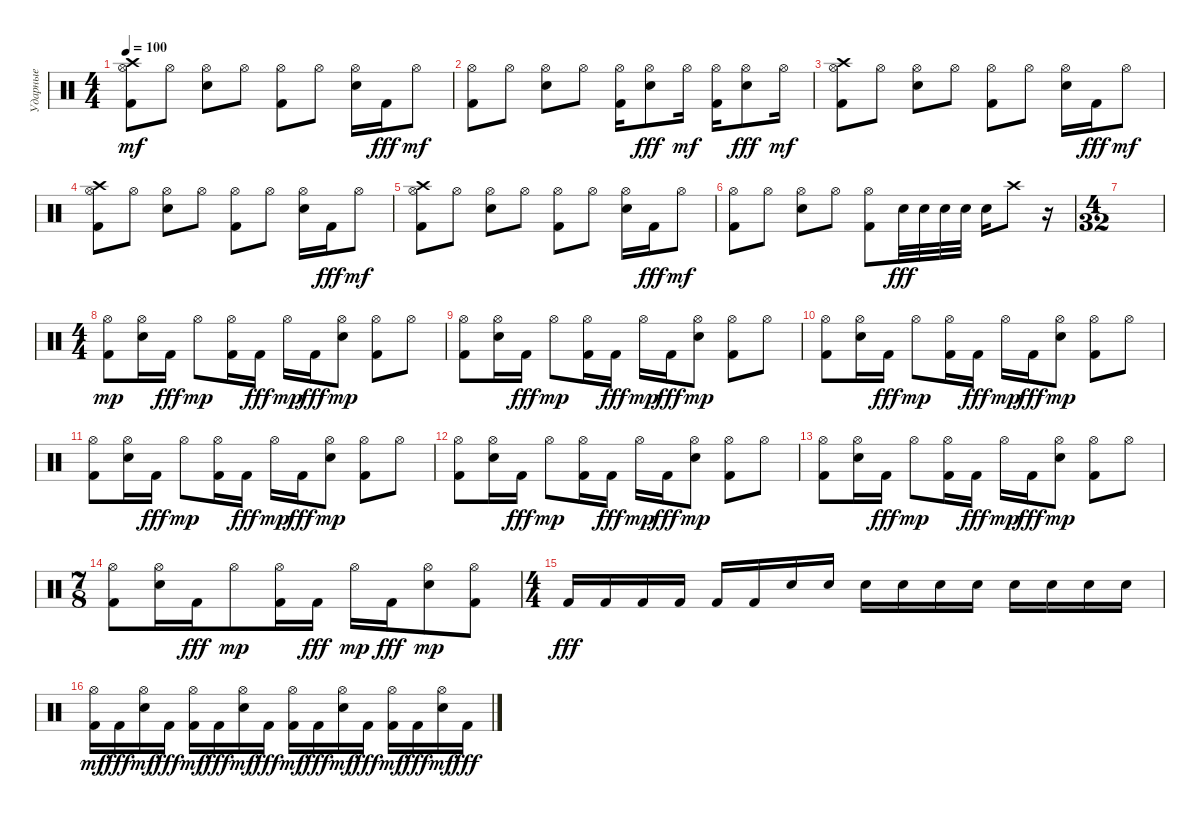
\track ("Ударные" "Ударные") {instrument percussion}
\staff {score}
\articulation defaults
\ts (4 4)
\tempo 100
\clef neutral
\ks c
("Kick (hit) 2" "Hi-Hat (open)" "Crash high (hit)").8{dy mf} "Hi-Hat (open)".8 ("Electric Snare (hit)" "Hi-Hat (open)").8 "Hi-Hat (open)".8 ("Kick (hit) 2" "Hi-Hat (open)").8 "Hi-Hat (open)".8 ("Electric Snare (hit)" "Hi-Hat (open)").16 "Kick (hit) 2".16{dy fff} "Hi-Hat (open)".8{dy mf} |
("Kick (hit) 2" "Hi-Hat (open)").8 "Hi-Hat (open)".8 ("Electric Snare (hit)" "Hi-Hat (open)").8 "Hi-Hat (open)".8 ("Kick (hit) 2" "Hi-Hat (open)").16 ("Hi-Hat (open)" "Electric Snare (hit)").8{dy fff} "Hi-Hat (open)".16{dy mf} ("Kick (hit) 2" "Hi-Hat (open)").16 ("Hi-Hat (open)" "Electric Snare (hit)").8{dy fff} "Hi-Hat (open)".16{dy mf} |
("Kick (hit) 2" "Hi-Hat (open)" "Crash high (hit)").8 "Hi-Hat (open)".8 ("Electric Snare (hit)" "Hi-Hat (open)").8 "Hi-Hat (open)".8 ("Kick (hit) 2" "Hi-Hat (open)").8 "Hi-Hat (open)".8 ("Electric Snare (hit)" "Hi-Hat (open)").16 "Kick (hit) 2".16{dy fff} "Hi-Hat (open)".8{dy mf} |
("Kick (hit) 2" "Hi-Hat (open)" "Crash high (hit)").8 "Hi-Hat (open)".8 ("Electric Snare (hit)" "Hi-Hat (open)").8 "Hi-Hat (open)".8 ("Kick (hit) 2" "Hi-Hat (open)").8 "Hi-Hat (open)".8 ("Electric Snare (hit)" "Hi-Hat (open)").16 "Kick (hit) 2".16{dy fff} "Hi-Hat (open)".8{dy mf} |
("Kick (hit) 2" "Hi-Hat (open)" "Crash high (hit)").8 "Hi-Hat (open)".8 ("Electric Snare (hit)" "Hi-Hat (open)").8 "Hi-Hat (open)".8 ("Kick (hit) 2" "Hi-Hat (open)").8 "Hi-Hat (open)".8 ("Electric Snare (hit)" "Hi-Hat (open)").16 "Kick (hit) 2".16{dy fff} "Hi-Hat (open)".8{dy mf} |
("Kick (hit) 2" "Hi-Hat (open)").8 "Hi-Hat (open)".8 ("Electric Snare (hit)" "Hi-Hat (open)").8 "Hi-Hat (open)".8 ("Kick (hit) 2" "Hi-Hat (open)").8 "Electric Snare (hit)".32{dy fff} "Electric Snare (hit)".32 "Electric Snare (hit)".32 "Electric Snare (hit)".32 "Electric Snare (hit)".16 "Crash high (hit)".8 r.16 |
\ts (4 32)
|
\ts (4 4)
("Kick (hit) 2" "Hi-Hat (open)").8{dy mp} ("Electric Snare (hit)" "Hi-Hat (open)").16 "Kick (hit) 2".16{dy fff} "Hi-Hat (open)".8{dy mp} ("Kick (hit) 2" "Hi-Hat (open)").16 "Kick (hit) 2".16{dy fff} "Hi-Hat (open)".16{dy mp} "Kick (hit) 2".16{dy fff} ("Electric Snare (hit)" "Hi-Hat (open)").8{dy mp} ("Kick (hit) 2" "Hi-Hat (open)").8 "Hi-Hat (open)".8 |
("Kick (hit) 2" "Hi-Hat (open)").8 ("Electric Snare (hit)" "Hi-Hat (open)").16 "Kick (hit) 2".16{dy fff} "Hi-Hat (open)".8{dy mp} ("Kick (hit) 2" "Hi-Hat (open)").16 "Kick (hit) 2".16{dy fff} "Hi-Hat (open)".16{dy mp} "Kick (hit) 2".16{dy fff} ("Electric Snare (hit)" "Hi-Hat (open)").8{dy mp} ("Kick (hit) 2" "Hi-Hat (open)").8 "Hi-Hat (open)".8 |
("Kick (hit) 2" "Hi-Hat (open)").8 ("Electric Snare (hit)" "Hi-Hat (open)").16 "Kick (hit) 2".16{dy fff} "Hi-Hat (open)".8{dy mp} ("Kick (hit) 2" "Hi-Hat (open)").16 "Kick (hit) 2".16{dy fff} "Hi-Hat (open)".16{dy mp} "Kick (hit) 2".16{dy fff} ("Electric Snare (hit)" "Hi-Hat (open)").8{dy mp} ("Kick (hit) 2" "Hi-Hat (open)").8 "Hi-Hat (open)".8 |
("Kick (hit) 2" "Hi-Hat (open)").8 ("Electric Snare (hit)" "Hi-Hat (open)").16 "Kick (hit) 2".16{dy fff} "Hi-Hat (open)".8{dy mp} ("Kick (hit) 2" "Hi-Hat (open)").16 "Kick (hit) 2".16{dy fff} "Hi-Hat (open)".16{dy mp} "Kick (hit) 2".16{dy fff} ("Electric Snare (hit)" "Hi-Hat (open)").8{dy mp} ("Kick (hit) 2" "Hi-Hat (open)").8 "Hi-Hat (open)".8 |
("Kick (hit) 2" "Hi-Hat (open)").8 ("Electric Snare (hit)" "Hi-Hat (open)").16 "Kick (hit) 2".16{dy fff} "Hi-Hat (open)".8{dy mp} ("Kick (hit) 2" "Hi-Hat (open)").16 "Kick (hit) 2".16{dy fff} "Hi-Hat (open)".16{dy mp} "Kick (hit) 2".16{dy fff} ("Electric Snare (hit)" "Hi-Hat (open)").8{dy mp} ("Kick (hit) 2" "Hi-Hat (open)").8 "Hi-Hat (open)".8 |
("Kick (hit) 2" "Hi-Hat (open)").8 ("Electric Snare (hit)" "Hi-Hat (open)").16 "Kick (hit) 2".16{dy fff} "Hi-Hat (open)".8{dy mp} ("Kick (hit) 2" "Hi-Hat (open)").16 "Kick (hit) 2".16{dy fff} "Hi-Hat (open)".16{dy mp} "Kick (hit) 2".16{dy fff} ("Electric Snare (hit)" "Hi-Hat (open)").8{dy mp} ("Kick (hit) 2" "Hi-Hat (open)").8 "Hi-Hat (open)".8 |
\ts (7 8)
("Kick (hit) 2" "Hi-Hat (open)").8 ("Electric Snare (hit)" "Hi-Hat (open)").16 "Kick (hit) 2".16{dy fff} "Hi-Hat (open)".8{dy mp} ("Kick (hit) 2" "Hi-Hat (open)").16 "Kick (hit) 2".16{dy fff} "Hi-Hat (open)".16{dy mp} "Kick (hit) 2".16{dy fff} ("Electric Snare (hit)" "Hi-Hat (open)").8{dy mp} ("Kick (hit) 2" "Hi-Hat (open)").8 |
\ts (4 4)
"Kick (hit) 2".16{dy fff} "Kick (hit) 2".16 "Kick (hit) 2".16 "Kick (hit) 2".16 "Kick (hit) 2".16 "Kick (hit) 2".16 "Electric Snare (hit)".16 "Electric Snare (hit)".16 "Electric Snare (hit)".16 "Electric Snare (hit)".16 "Electric Snare (hit)".16 "Electric Snare (hit)".16 "Electric Snare (hit)".16 "Electric Snare (hit)".16 "Electric Snare (hit)".16 "Electric Snare (hit)".16 |
("Kick (hit) 2" "Hi-Hat (open)").16{dy mf} "Kick (hit) 2".16{dy fff} ("Electric Snare (hit)" "Hi-Hat (open)").16{dy mf} "Kick (hit) 2".16{dy fff} ("Kick (hit) 2" "Hi-Hat (open)").16{dy mf} "Kick (hit) 2".16{dy fff} ("Electric Snare (hit)" "Hi-Hat (open)").16{dy mf} "Kick (hit) 2".16{dy fff} ("Kick (hit) 2" "Hi-Hat (open)").16{dy mf} "Kick (hit) 2".16{dy fff} ("Electric Snare (hit)" "Hi-Hat (open)").16{dy mf} "Kick (hit) 2".16{dy fff} ("Kick (hit) 2" "Hi-Hat (open)").16{dy mf} "Kick (hit) 2".16{dy fff} ("Electric Snare (hit)" "Hi-Hat (open)").16{dy mf} "Kick (hit) 2".16{dy fff}
